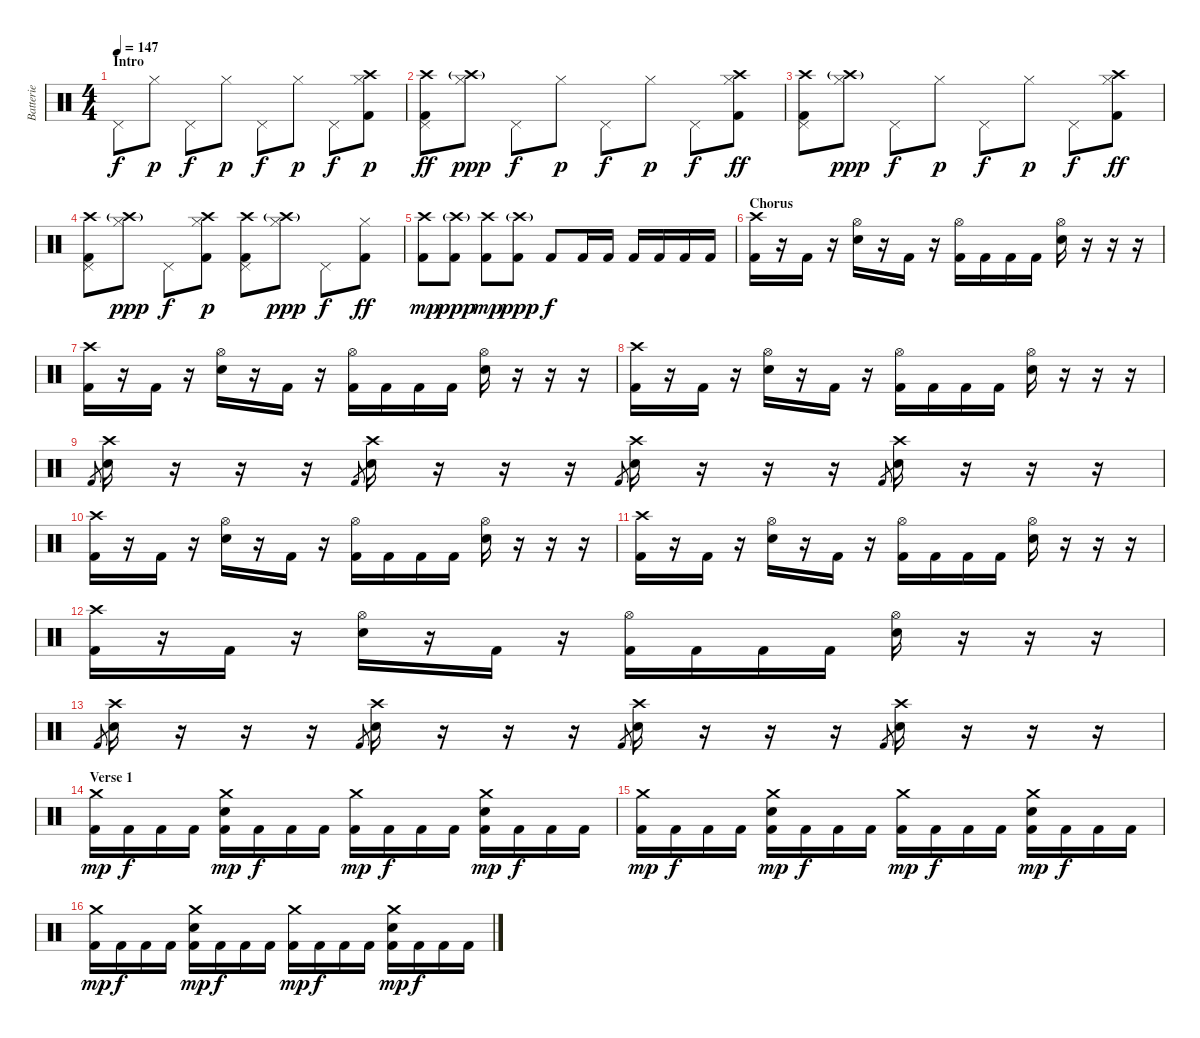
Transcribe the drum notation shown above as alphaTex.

\track ("Batterie" "Batterie") {instrument percussion}
\staff {score}
\articulation defaults
\ts (4 4)
\section ("" "Intro")
\tempo 147
\clef neutral
\ks c "Pedal Hi-Hat (hit)".8{dy f} "Hi-Hat (closed)".8{dy p} "Pedal Hi-Hat (hit)".8{dy f} "Hi-Hat (closed)".8{dy p} "Pedal Hi-Hat (hit)".8{dy f} "Hi-Hat (closed)".8{dy p} "Pedal Hi-Hat (hit)".8{dy f}
("Hi-Hat (closed)" "Crash high (hit)" "Kick (hit) 2").8{dy p} |
("Pedal Hi-Hat (hit)" "Crash high (hit)" "Kick (hit) 2").8{dy ff} ("Hi-Hat (closed)" "Crash high (hit)"{g}).8{dy ppp} "Pedal Hi-Hat (hit)".8{dy f} "Hi-Hat (closed)".8{dy p} "Pedal Hi-Hat (hit)".8{dy f} "Hi-Hat (closed)".8{dy p} "Pedal Hi-Hat (hit)".8{dy f} ("Hi-Hat (closed)" "Crash high (hit)" "Kick (hit) 2").8{dy ff} |
("Pedal Hi-Hat (hit)" "Crash high (hit)" "Kick (hit) 2").8 ("Hi-Hat (closed)" "Crash high (hit)"{g}).8{dy ppp} "Pedal Hi-Hat (hit)".8{dy f} "Hi-Hat (closed)".8{dy p} "Pedal Hi-Hat (hit)".8{dy f} "Hi-Hat (closed)".8{dy p} "Pedal Hi-Hat (hit)".8{dy f} ("Hi-Hat (closed)" "Crash high (hit)" "Kick (hit) 2").8{dy ff} |
("Pedal Hi-Hat (hit)" "Crash high (hit)" "Kick (hit) 2").8 ("Hi-Hat (closed)" "Crash high (hit)"{g}).8{dy ppp} "Pedal Hi-Hat (hit)".8{dy f} ("Hi-Hat (closed)" "Crash high (hit)" "Kick (hit) 2").8{dy p} ("Pedal Hi-Hat (hit)" "Crash high (hit)" "Kick (hit) 2").8 ("Hi-Hat (closed)" "Crash high (hit)"{g}).8{dy ppp} "Pedal Hi-Hat (hit)".8{dy f} ("Hi-Hat (closed)" "Kick (hit) 2").8{dy ff} |
("Crash high (hit)" "Kick (hit) 2").8{dy mp} ("Crash high (hit)"{g} "Kick (hit) 2").8{dy ppp} ("Crash high (hit)" "Kick (hit) 2").8{dy mp} ("Crash high (hit)"{g} "Kick (hit) 2").8{dy ppp} "Kick (hit) 2".8{dy f} "Kick (hit) 2".16 "Kick (hit) 2".16 "Kick (hit) 2".16 "Kick (hit) 2".16 "Kick (hit) 2".16 "Kick (hit) 2".16 |
\section ("" "Chorus")
("Crash high (hit)" "Kick (hit) 2").16 r.16 "Kick (hit) 2".16 r.16 ("Hi-Hat (open)" "Electric Snare (hit)").16 r.16 "Kick (hit) 2".16 r.16 ("Hi-Hat (open)" "Kick (hit) 2").16 "Kick (hit) 2".16 "Kick (hit) 2".16 "Kick (hit) 2".16 ("Hi-Hat (open)" "Electric Snare (hit)").16 r.16 r.16 r.16 |
("Crash high (hit)" "Kick (hit) 2").16 r.16 "Kick (hit) 2".16 r.16 ("Hi-Hat (open)" "Electric Snare (hit)").16 r.16 "Kick (hit) 2".16 r.16 ("Hi-Hat (open)" "Kick (hit) 2").16 "Kick (hit) 2".16 "Kick (hit) 2".16 "Kick (hit) 2".16 ("Hi-Hat (open)" "Electric Snare (hit)").16 r.16 r.16 r.16 |
("Crash high (hit)" "Kick (hit) 2").16 r.16 "Kick (hit) 2".16 r.16 ("Hi-Hat (open)" "Electric Snare (hit)").16 r.16 "Kick (hit) 2".16 r.16 ("Hi-Hat (open)" "Kick (hit) 2").16 "Kick (hit) 2".16 "Kick (hit) 2".16 "Kick (hit) 2".16 ("Hi-Hat (open)" "Electric Snare (hit)").16 r.16 r.16 r.16 |
"Kick (hit) 2".8{gr} ("Crash high (hit)" "Electric Snare (hit)").16 r.16 r.16 r.16 "Kick (hit) 2".8{gr} ("Crash high (hit)" "Electric Snare (hit)").16 r.16 r.16 r.16 "Kick (hit) 2".8{gr} ("Crash high (hit)" "Electric Snare (hit)").16 r.16 r.16 r.16 "Kick (hit) 2".8{gr} ("Crash high (hit)" "Electric Snare (hit)").16 r.16 r.16 r.16 |
("Crash high (hit)" "Kick (hit) 2").16 r.16 "Kick (hit) 2".16 r.16 ("Hi-Hat (open)" "Electric Snare (hit)").16 r.16 "Kick (hit) 2".16 r.16 ("Hi-Hat (open)" "Kick (hit) 2").16 "Kick (hit) 2".16 "Kick (hit) 2".16 "Kick (hit) 2".16 ("Hi-Hat (open)" "Electric Snare (hit)").16 r.16 r.16 r.16 |
("Crash high (hit)" "Kick (hit) 2").16 r.16 "Kick (hit) 2".16 r.16 ("Hi-Hat (open)" "Electric Snare (hit)").16 r.16 "Kick (hit) 2".16 r.16 ("Hi-Hat (open)" "Kick (hit) 2").16 "Kick (hit) 2".16 "Kick (hit) 2".16 "Kick (hit) 2".16 ("Hi-Hat (open)" "Electric Snare (hit)").16 r.16 r.16 r.16 |
("Crash high (hit)" "Kick (hit) 2").16 r.16 "Kick (hit) 2".16 r.16 ("Hi-Hat (open)" "Electric Snare (hit)").16 r.16 "Kick (hit) 2".16 r.16 ("Hi-Hat (open)" "Kick (hit) 2").16 "Kick (hit) 2".16 "Kick (hit) 2".16 "Kick (hit) 2".16 ("Hi-Hat (open)" "Electric Snare (hit)").16 r.16 r.16 r.16 |
"Kick (hit) 2".8{gr} ("Crash high (hit)" "Electric Snare (hit)").16 r.16 r.16 r.16 "Kick (hit) 2".8{gr} ("Crash high (hit)" "Electric Snare (hit)").16 r.16 r.16 r.16 "Kick (hit) 2".8{gr} ("Crash high (hit)" "Electric Snare (hit)").16 r.16 r.16 r.16 "Kick (hit) 2".8{gr} ("Crash high (hit)" "Electric Snare (hit)").16 r.16 r.16 r.16 |
\section ("" "Verse 1")
("Crash medium (hit)" "Kick (hit) 2").16{dy mp} "Kick (hit) 2".16{dy f} "Kick (hit) 2".16 "Kick (hit) 2".16 ("Crash medium (hit)" "Kick (hit) 2" "Electric Snare (hit)").16{dy mp} "Kick (hit) 2".16{dy f} "Kick (hit) 2".16 "Kick (hit) 2".16 ("Crash medium (hit)" "Kick (hit) 2").16{dy mp} "Kick (hit) 2".16{dy f} "Kick (hit) 2".16 "Kick (hit) 2".16 ("Crash medium (hit)" "Kick (hit) 2" "Electric Snare (hit)").16{dy mp} "Kick (hit) 2".16{dy f} "Kick (hit) 2".16 "Kick (hit) 2".16 |
("Crash medium (hit)" "Kick (hit) 2").16{dy mp} "Kick (hit) 2".16{dy f} "Kick (hit) 2".16 "Kick (hit) 2".16 ("Crash medium (hit)" "Kick (hit) 2" "Electric Snare (hit)").16{dy mp} "Kick (hit) 2".16{dy f} "Kick (hit) 2".16 "Kick (hit) 2".16 ("Crash medium (hit)" "Kick (hit) 2").16{dy mp} "Kick (hit) 2".16{dy f} "Kick (hit) 2".16 "Kick (hit) 2".16 ("Crash medium (hit)" "Kick (hit) 2" "Electric Snare (hit)").16{dy mp} "Kick (hit) 2".16{dy f} "Kick (hit) 2".16 "Kick (hit) 2".16 |
("Crash medium (hit)" "Kick (hit) 2").16{dy mp} "Kick (hit) 2".16{dy f} "Kick (hit) 2".16 "Kick (hit) 2".16 ("Crash medium (hit)" "Kick (hit) 2" "Electric Snare (hit)").16{dy mp} "Kick (hit) 2".16{dy f} "Kick (hit) 2".16 "Kick (hit) 2".16 ("Crash medium (hit)" "Kick (hit) 2").16{dy mp} "Kick (hit) 2".16{dy f} "Kick (hit) 2".16 "Kick (hit) 2".16 ("Crash medium (hit)" "Kick (hit) 2" "Electric Snare (hit)").16{dy mp} "Kick (hit) 2".16{dy f} "Kick (hit) 2".16 "Kick (hit) 2".16
